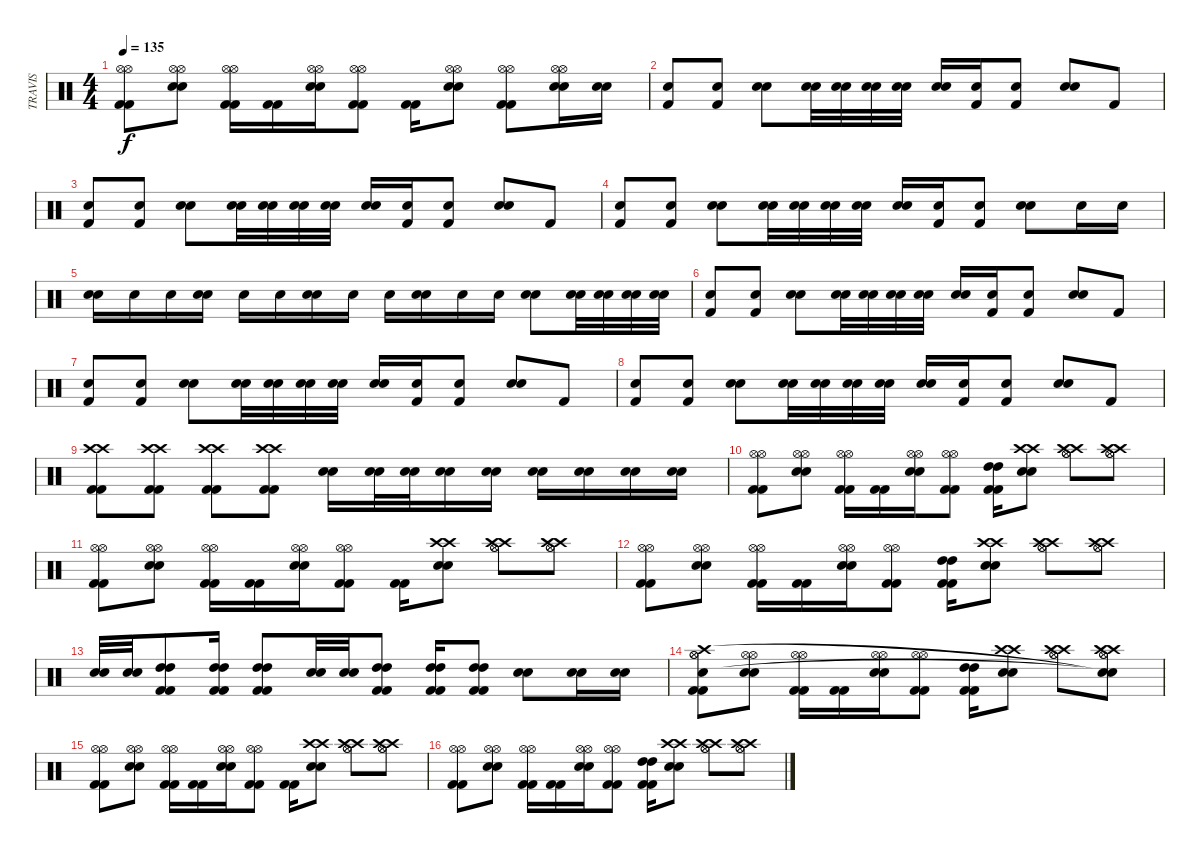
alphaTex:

\track ("TRAVIS" "TRAVIS") {instrument percussion}
\staff {score}
\articulation defaults
\ts (4 4)
\tempo 135
\clef neutral
\ks c
("Kick (hit) 2" "Kick (hit) 2" "Hi-Hat (open)" "Hi-Hat (open)").8{dy f} ("Snare (hit) 2" "Snare (hit) 2" "Hi-Hat (open)" "Hi-Hat (open)").8 ("Kick (hit) 2" "Kick (hit) 2" "Hi-Hat (open)" "Hi-Hat (open)").16 ("Kick (hit) 2" "Kick (hit) 2").16 ("Snare (hit) 2" "Snare (hit) 2" "Hi-Hat (open)" "Hi-Hat (open)").16 ("Kick (hit) 2" "Kick (hit) 2" "Hi-Hat (open)" "Hi-Hat (open)").8 ("Kick (hit) 2" "Kick (hit) 2").16 ("Snare (hit) 2" "Snare (hit) 2" "Hi-Hat (open)" "Hi-Hat (open)").8 ("Kick (hit) 2" "Kick (hit) 2" "Hi-Hat (open)" "Hi-Hat (open)").8 ("Snare (hit) 2" "Snare (hit) 2" "Hi-Hat (open)" "Hi-Hat (open)").16 ("Snare (hit) 2" "Snare (hit) 2").16 |
("Snare (hit) 2" "Kick (hit) 2").8 ("Snare (hit) 2" "Kick (hit) 2").8 ("Snare (hit) 2" "Snare (hit) 2").8 ("Snare (hit) 2" "Snare (hit) 2").32 ("Snare (hit) 2" "Snare (hit) 2").32 ("Snare (hit) 2" "Snare (hit) 2").32 ("Snare (hit) 2" "Snare (hit) 2").32 ("Snare (hit) 2" "Snare (hit) 2").16 ("Snare (hit) 2" "Kick (hit) 2").16 ("Snare (hit) 2" "Kick (hit) 2").8 ("Snare (hit) 2" "Snare (hit) 2").8 "Kick (hit) 2".8 |
("Snare (hit) 2" "Kick (hit) 2").8 ("Snare (hit) 2" "Kick (hit) 2").8 ("Snare (hit) 2" "Snare (hit) 2").8 ("Snare (hit) 2" "Snare (hit) 2").32 ("Snare (hit) 2" "Snare (hit) 2").32 ("Snare (hit) 2" "Snare (hit) 2").32 ("Snare (hit) 2" "Snare (hit) 2").32 ("Snare (hit) 2" "Snare (hit) 2").16 ("Snare (hit) 2" "Kick (hit) 2").16 ("Snare (hit) 2" "Kick (hit) 2").8 ("Snare (hit) 2" "Snare (hit) 2").8 "Kick (hit) 2".8 |
("Snare (hit) 2" "Kick (hit) 2").8 ("Snare (hit) 2" "Kick (hit) 2").8 ("Snare (hit) 2" "Snare (hit) 2").8 ("Snare (hit) 2" "Snare (hit) 2").32 ("Snare (hit) 2" "Snare (hit) 2").32 ("Snare (hit) 2" "Snare (hit) 2").32 ("Snare (hit) 2" "Snare (hit) 2").32 ("Snare (hit) 2" "Snare (hit) 2").16 ("Snare (hit) 2" "Kick (hit) 2").16 ("Snare (hit) 2" "Kick (hit) 2").8 ("Snare (hit) 2" "Snare (hit) 2").8 "Snare (hit) 2".16 "Snare (hit) 2".16 |
("Snare (hit) 2" "Snare (hit) 2").16 "Snare (hit) 2".16 "Snare (hit) 2".16 ("Snare (hit) 2" "Snare (hit) 2").16 "Snare (hit) 2".16 "Snare (hit) 2".16 ("Snare (hit) 2" "Snare (hit) 2").16 "Snare (hit) 2".16 "Snare (hit) 2".16 ("Snare (hit) 2" "Snare (hit) 2").16 "Snare (hit) 2".16 "Snare (hit) 2".16 ("Snare (hit) 2" "Snare (hit) 2").8 ("Snare (hit) 2" "Snare (hit) 2").32 ("Snare (hit) 2" "Snare (hit) 2").32 ("Snare (hit) 2" "Snare (hit) 2").32 ("Snare (hit) 2" "Snare (hit) 2").32 |
("Snare (hit) 2" "Kick (hit) 2").8 ("Snare (hit) 2" "Kick (hit) 2").8 ("Snare (hit) 2" "Snare (hit) 2").8 ("Snare (hit) 2" "Snare (hit) 2").32 ("Snare (hit) 2" "Snare (hit) 2").32 ("Snare (hit) 2" "Snare (hit) 2").32 ("Snare (hit) 2" "Snare (hit) 2").32 ("Snare (hit) 2" "Snare (hit) 2").16 ("Snare (hit) 2" "Kick (hit) 2").16 ("Snare (hit) 2" "Kick (hit) 2").8 ("Snare (hit) 2" "Snare (hit) 2").8 "Kick (hit) 2".8 |
("Snare (hit) 2" "Kick (hit) 2").8 ("Snare (hit) 2" "Kick (hit) 2").8 ("Snare (hit) 2" "Snare (hit) 2").8 ("Snare (hit) 2" "Snare (hit) 2").32 ("Snare (hit) 2" "Snare (hit) 2").32 ("Snare (hit) 2" "Snare (hit) 2").32 ("Snare (hit) 2" "Snare (hit) 2").32 ("Snare (hit) 2" "Snare (hit) 2").16 ("Snare (hit) 2" "Kick (hit) 2").16 ("Snare (hit) 2" "Kick (hit) 2").8 ("Snare (hit) 2" "Snare (hit) 2").8 "Kick (hit) 2".8 |
("Snare (hit) 2" "Kick (hit) 2").8 ("Snare (hit) 2" "Kick (hit) 2").8 ("Snare (hit) 2" "Snare (hit) 2").8 ("Snare (hit) 2" "Snare (hit) 2").32 ("Snare (hit) 2" "Snare (hit) 2").32 ("Snare (hit) 2" "Snare (hit) 2").32 ("Snare (hit) 2" "Snare (hit) 2").32 ("Snare (hit) 2" "Snare (hit) 2").16 ("Snare (hit) 2" "Kick (hit) 2").16 ("Snare (hit) 2" "Kick (hit) 2").8 ("Snare (hit) 2" "Snare (hit) 2").8 "Kick (hit) 2".8 |
("Crash high (hit)" "Crash high (hit)" "Kick (hit) 2" "Kick (hit) 2").8 ("Crash high (hit)" "Crash high (hit)" "Kick (hit) 2" "Kick (hit) 2").8 ("Crash high (hit)" "Crash high (hit)" "Kick (hit) 2" "Kick (hit) 2").8 ("Crash high (hit)" "Crash high (hit)" "Kick (hit) 2" "Kick (hit) 2").8 ("Snare (hit) 2" "Snare (hit) 2").16 ("Snare (hit) 2" "Snare (hit) 2").32 ("Snare (hit) 2" "Snare (hit) 2").32 ("Snare (hit) 2" "Snare (hit) 2").16 ("Snare (hit) 2" "Snare (hit) 2").16 ("Snare (hit) 2" "Snare (hit) 2").16 ("Snare (hit) 2" "Snare (hit) 2").16 ("Snare (hit) 2" "Snare (hit) 2").16 ("Snare (hit) 2" "Snare (hit) 2").16 |
("Kick (hit) 2" "Kick (hit) 2" "Hi-Hat (open)" "Hi-Hat (open)").8 ("Snare (hit) 2" "Snare (hit) 2" "Hi-Hat (open)" "Hi-Hat (open)").8 ("Kick (hit) 2" "Kick (hit) 2" "Hi-Hat (open)" "Hi-Hat (open)").16 ("Kick (hit) 2" "Kick (hit) 2").16 ("Snare (hit) 2" "Snare (hit) 2" "Hi-Hat (open)" "Hi-Hat (open)").16 ("Kick (hit) 2" "Kick (hit) 2" "Hi-Hat (open)" "Hi-Hat (open)").8 ("Kick (hit) 2" "Kick (hit) 2" "High Tom (hit)" "High Tom (hit)").16 ("Snare (hit) 2" "Snare (hit) 2" "Crash high (hit)" "Crash high (hit)").8 ("Crash high (hit)" "Crash high (hit)" "Hi-Hat (open)" "Hi-Hat (open)").8 ("Crash high (hit)" "Crash high (hit)" "Hi-Hat (open)" "Hi-Hat (open)").8 |
("Kick (hit) 2" "Kick (hit) 2" "Hi-Hat (open)" "Hi-Hat (open)").8 ("Snare (hit) 2" "Snare (hit) 2" "Hi-Hat (open)" "Hi-Hat (open)").8 ("Kick (hit) 2" "Kick (hit) 2" "Hi-Hat (open)" "Hi-Hat (open)").16 ("Kick (hit) 2" "Kick (hit) 2").16 ("Snare (hit) 2" "Snare (hit) 2" "Hi-Hat (open)" "Hi-Hat (open)").16 ("Kick (hit) 2" "Kick (hit) 2" "Hi-Hat (open)" "Hi-Hat (open)").8 ("Kick (hit) 2" "Kick (hit) 2").16 ("Snare (hit) 2" "Snare (hit) 2" "Crash high (hit)" "Crash high (hit)").8 ("Crash high (hit)" "Crash high (hit)" "Hi-Hat (open)" "Hi-Hat (open)").8 ("Crash high (hit)" "Crash high (hit)" "Hi-Hat (open)" "Hi-Hat (open)").8 |
("Kick (hit) 2" "Kick (hit) 2" "Hi-Hat (open)" "Hi-Hat (open)").8 ("Snare (hit) 2" "Snare (hit) 2" "Hi-Hat (open)" "Hi-Hat (open)").8 ("Kick (hit) 2" "Kick (hit) 2" "Hi-Hat (open)" "Hi-Hat (open)").16 ("Kick (hit) 2" "Kick (hit) 2").16 ("Snare (hit) 2" "Snare (hit) 2" "Hi-Hat (open)" "Hi-Hat (open)").16 ("Kick (hit) 2" "Kick (hit) 2" "Hi-Hat (open)" "Hi-Hat (open)").8 ("Kick (hit) 2" "Kick (hit) 2" "High Tom (hit)" "High Tom (hit)").16 ("Snare (hit) 2" "Snare (hit) 2" "Crash high (hit)" "Crash high (hit)").8 ("Crash high (hit)" "Crash high (hit)" "Hi-Hat (open)" "Hi-Hat (open)").8 ("Crash high (hit)" "Crash high (hit)" "Hi-Hat (open)" "Hi-Hat (open)").8 |
("Snare (hit) 2" "Snare (hit) 2").32 ("Snare (hit) 2" "Snare (hit) 2").32 ("Kick (hit) 2" "Kick (hit) 2" "High Tom (hit)" "High Tom (hit)").8 ("Kick (hit) 2" "Kick (hit) 2" "High Tom (hit)" "High Tom (hit)").16 ("Kick (hit) 2" "Kick (hit) 2" "High Tom (hit)" "High Tom (hit)").8 ("Snare (hit) 2" "Snare (hit) 2").32 ("Snare (hit) 2" "Snare (hit) 2").32 ("Kick (hit) 2" "Kick (hit) 2" "High Tom (hit)" "High Tom (hit)").8 ("Kick (hit) 2" "Kick (hit) 2" "High Tom (hit)" "High Tom (hit)").16 ("Kick (hit) 2" "Kick (hit) 2" "High Tom (hit)" "High Tom (hit)").8 ("Snare (hit) 2" "Snare (hit) 2").8 ("Snare (hit) 2" "Snare (hit) 2").16 ("Snare (hit) 2" "Snare (hit) 2").16 |
("Kick (hit) 2" "Kick (hit) 2" "Hi-Hat (open)" "Hi-Hat (open)" "Crash high (hit)" "Snare (hit)").8 ("Snare (hit) 2" "Snare (hit) 2" "Hi-Hat (open)" "Hi-Hat (open)").8 ("Kick (hit) 2" "Kick (hit) 2" "Hi-Hat (open)" "Hi-Hat (open)").16 ("Kick (hit) 2" "Kick (hit) 2").16 ("Snare (hit) 2" "Snare (hit) 2" "Hi-Hat (open)" "Hi-Hat (open)").16 ("Kick (hit) 2" "Kick (hit) 2" "Hi-Hat (open)" "Hi-Hat (open)").8 ("Kick (hit) 2" "Kick (hit) 2" "High Tom (hit)" "High Tom (hit)").16 ("Snare (hit) 2" "Snare (hit) 2" "Crash high (hit)" "Crash high (hit)").8 ("Crash high (hit)" "Crash high (hit)" "Hi-Hat (open)" "Hi-Hat (open)").8 ("Crash high (hit)" "Crash high (hit)" "Hi-Hat (open)" "Hi-Hat (open)" "Snare (hit)"{t} "Snare (hit)"{t}).8 |
("Kick (hit) 2" "Kick (hit) 2" "Hi-Hat (open)" "Hi-Hat (open)").8 ("Snare (hit) 2" "Snare (hit) 2" "Hi-Hat (open)" "Hi-Hat (open)").8 ("Kick (hit) 2" "Kick (hit) 2" "Hi-Hat (open)" "Hi-Hat (open)").16 ("Kick (hit) 2" "Kick (hit) 2").16 ("Snare (hit) 2" "Snare (hit) 2" "Hi-Hat (open)" "Hi-Hat (open)").16 ("Kick (hit) 2" "Kick (hit) 2" "Hi-Hat (open)" "Hi-Hat (open)").8 ("Kick (hit) 2" "Kick (hit) 2").16 ("Snare (hit) 2" "Snare (hit) 2" "Crash high (hit)" "Crash high (hit)").8 ("Crash high (hit)" "Crash high (hit)" "Hi-Hat (open)" "Hi-Hat (open)").8 ("Crash high (hit)" "Crash high (hit)" "Hi-Hat (open)" "Hi-Hat (open)").8 |
("Kick (hit) 2" "Kick (hit) 2" "Hi-Hat (open)" "Hi-Hat (open)").8 ("Snare (hit) 2" "Snare (hit) 2" "Hi-Hat (open)" "Hi-Hat (open)").8 ("Kick (hit) 2" "Kick (hit) 2" "Hi-Hat (open)" "Hi-Hat (open)").16 ("Kick (hit) 2" "Kick (hit) 2").16 ("Snare (hit) 2" "Snare (hit) 2" "Hi-Hat (open)" "Hi-Hat (open)").16 ("Kick (hit) 2" "Kick (hit) 2" "Hi-Hat (open)" "Hi-Hat (open)").8 ("Kick (hit) 2" "Kick (hit) 2" "High Tom (hit)" "High Tom (hit)").16 ("Snare (hit) 2" "Snare (hit) 2" "Crash high (hit)" "Crash high (hit)").8 ("Crash high (hit)" "Crash high (hit)" "Hi-Hat (open)" "Hi-Hat (open)").8 ("Crash high (hit)" "Crash high (hit)" "Hi-Hat (open)" "Hi-Hat (open)").8
